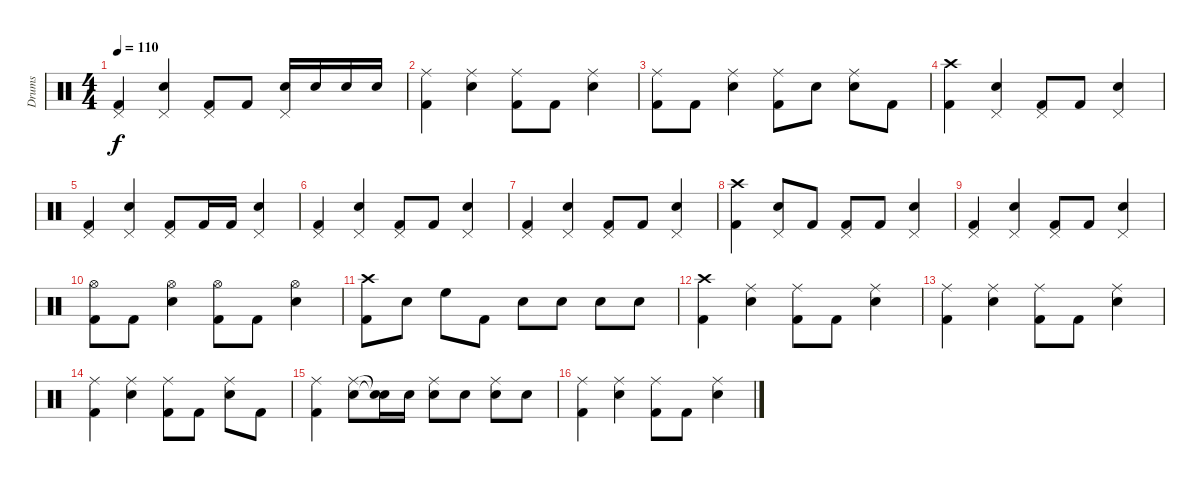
\track ("Drums" "Drums") {instrument percussion}
\staff {score}
\articulation defaults
\ts (4 4)
\tempo 110
\clef neutral
\ks c
("Pedal Hi-Hat (hit)" "Kick (hit) 2").4{dy f} ("Pedal Hi-Hat (hit)" "Electric Snare (hit)").4 ("Pedal Hi-Hat (hit)" "Kick (hit) 2").8 "Kick (hit) 2".8 ("Pedal Hi-Hat (hit)" "Electric Snare (hit)").16 "Electric Snare (hit)".16 "Electric Snare (hit)".16 "Electric Snare (hit)".16 |
("Ride (middle)" "Kick (hit) 2").4 ("Ride (middle)" "Electric Snare (hit)").4 ("Ride (middle)" "Kick (hit) 2").8 "Kick (hit) 2".8 ("Ride (middle)" "Electric Snare (hit)").4 |
("Ride (middle)" "Kick (hit) 2").8 "Kick (hit) 2".8 ("Ride (middle)" "Electric Snare (hit)").4 ("Ride (middle)" "Kick (hit) 2").8 "Electric Snare (hit)".8 ("Ride (middle)" "Electric Snare (hit)").8 "Kick (hit) 2".8 |
("Crash high (hit)" "Kick (hit) 2").4 ("Pedal Hi-Hat (hit)" "Electric Snare (hit)").4 ("Pedal Hi-Hat (hit)" "Kick (hit) 2").8 "Kick (hit) 2".8 ("Pedal Hi-Hat (hit)" "Electric Snare (hit)").4 |
("Pedal Hi-Hat (hit)" "Kick (hit) 2").4 ("Pedal Hi-Hat (hit)" "Electric Snare (hit)").4 ("Pedal Hi-Hat (hit)" "Kick (hit) 2").8 "Kick (hit) 2".16 "Kick (hit) 2".16 ("Pedal Hi-Hat (hit)" "Electric Snare (hit)").4 |
("Pedal Hi-Hat (hit)" "Kick (hit) 2").4 ("Pedal Hi-Hat (hit)" "Electric Snare (hit)").4 ("Pedal Hi-Hat (hit)" "Kick (hit) 2").8 "Kick (hit) 2".8 ("Pedal Hi-Hat (hit)" "Electric Snare (hit)").4 |
("Pedal Hi-Hat (hit)" "Kick (hit) 2").4 ("Pedal Hi-Hat (hit)" "Electric Snare (hit)").4 ("Pedal Hi-Hat (hit)" "Kick (hit) 2").8 "Kick (hit) 2".8 ("Pedal Hi-Hat (hit)" "Electric Snare (hit)").4 |
("Crash high (hit)" "Kick (hit) 2").4 ("Pedal Hi-Hat (hit)" "Electric Snare (hit)").8 "Kick (hit) 2".8 ("Pedal Hi-Hat (hit)" "Kick (hit) 2").8 "Kick (hit) 2".8 ("Pedal Hi-Hat (hit)" "Electric Snare (hit)").4 |
("Pedal Hi-Hat (hit)" "Kick (hit) 2").4 ("Pedal Hi-Hat (hit)" "Electric Snare (hit)").4 ("Pedal Hi-Hat (hit)" "Kick (hit) 2").8 "Kick (hit) 2".8 ("Pedal Hi-Hat (hit)" "Electric Snare (hit)").4 |
("Hi-Hat (open)" "Kick (hit) 2").8 "Kick (hit) 2".8 ("Hi-Hat (open)" "Electric Snare (hit)").4 ("Hi-Hat (open)" "Kick (hit) 2").8 "Kick (hit) 2".8 ("Hi-Hat (open)" "Electric Snare (hit)").4 |
("Crash high (hit)" "Kick (hit) 2").8 "Electric Snare (hit)".8 "High Floor Tom (hit)".8 "Kick (hit) 2".8 "Electric Snare (hit)".8 "Electric Snare (hit)".8 "Electric Snare (hit)".8 "Electric Snare (hit)".8 |
("Crash high (hit)" "Kick (hit) 2").4 ("Ride (middle)" "Electric Snare (hit)").4 ("Ride (middle)" "Kick (hit) 2").8 "Kick (hit) 2".8 ("Ride (middle)" "Electric Snare (hit)").4 |
("Ride (middle)" "Kick (hit) 2").4 ("Ride (middle)" "Electric Snare (hit)").4 ("Ride (middle)" "Kick (hit) 2").8 "Kick (hit) 2".8 ("Ride (middle)" "Electric Snare (hit)").4 |
("Ride (middle)" "Kick (hit) 2").4 ("Ride (middle)" "Electric Snare (hit)").4 ("Ride (middle)" "Kick (hit) 2").8 "Kick (hit) 2".8 ("Ride (middle)" "Electric Snare (hit)").8 "Kick (hit) 2".8 |
("Ride (middle)" "Kick (hit) 2").4 ("Ride (middle)" "Electric Snare (hit)").8 ("Snare (hit)"{t} "Snare (hit)"{t}).16 "Electric Snare (hit)".16 ("Ride (middle)" "Electric Snare (hit)").8 "Electric Snare (hit)".8 ("Ride (middle)" "Electric Snare (hit)").8 "Electric Snare (hit)".8 |
("Ride (middle)" "Kick (hit) 2").4 ("Ride (middle)" "Electric Snare (hit)").4 ("Ride (middle)" "Kick (hit) 2").8 "Kick (hit) 2".8 ("Ride (middle)" "Electric Snare (hit)").4
